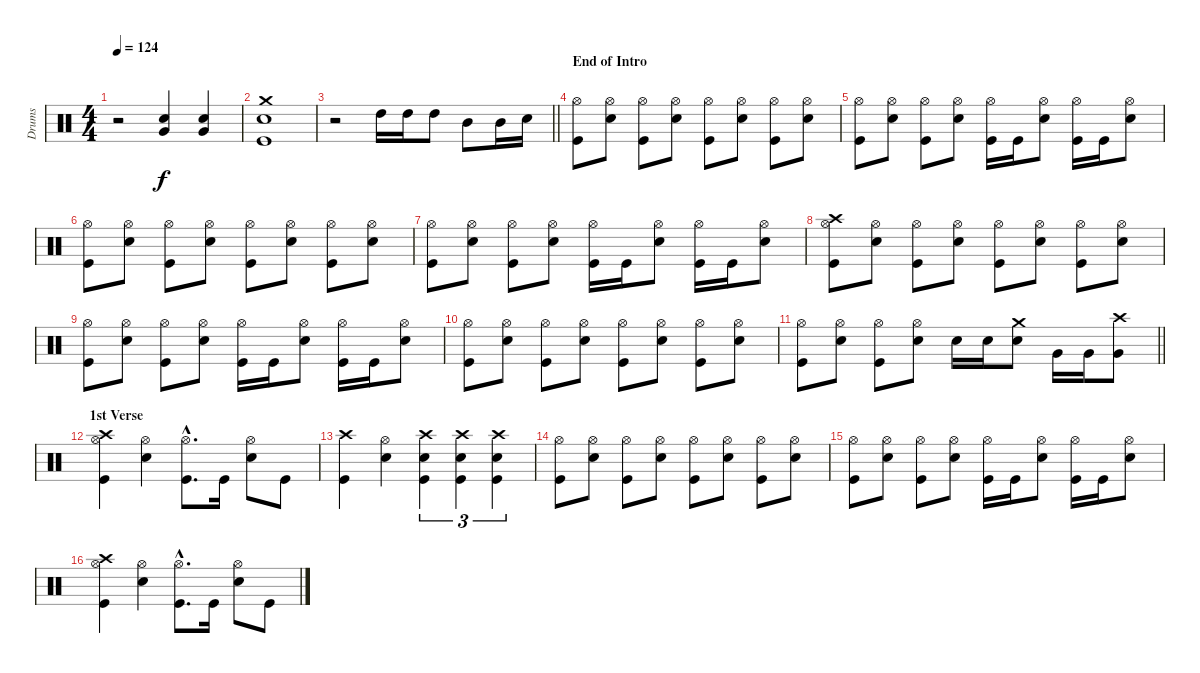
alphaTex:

\track ("Drums" "Drums") {instrument percussion}
\staff {score}
\articulation defaults
\ts (4 4)
\tempo 124
\clef neutral
\ks c
r.2{dy f} ("Very Low Tom (hit)" "Electric Snare (hit)").4 ("Very Low Tom (hit)" "Electric Snare (hit)").4 |
("Crash medium (hit)" "Electric Snare (hit)" "Kick (hit)").1 |
\barLineRight lightlight
r.2 "High Tom (hit)".16 "High Tom (hit)".16 "High Tom (hit)".8 "Mid Tom (hit)".8 "Mid Tom (hit)".16 "Electric Snare (hit)".16 |
\section ("" "End of Intro")
("Hi-Hat (open)" "Kick (hit)").8 ("Hi-Hat (open)" "Electric Snare (hit)").8 ("Hi-Hat (open)" "Kick (hit)").8 ("Hi-Hat (open)" "Electric Snare (hit)").8 ("Hi-Hat (open)" "Kick (hit)").8 ("Hi-Hat (open)" "Electric Snare (hit)").8 ("Hi-Hat (open)" "Kick (hit)").8 ("Hi-Hat (open)" "Electric Snare (hit)").8 |
("Hi-Hat (open)" "Kick (hit)").8 ("Hi-Hat (open)" "Electric Snare (hit)").8 ("Hi-Hat (open)" "Kick (hit)").8 ("Hi-Hat (open)" "Electric Snare (hit)").8 ("Hi-Hat (open)" "Kick (hit)").16 "Kick (hit)".16 ("Hi-Hat (open)" "Electric Snare (hit)").8 ("Hi-Hat (open)" "Kick (hit)").16 "Kick (hit)".16 ("Hi-Hat (open)" "Electric Snare (hit)").8 |
("Hi-Hat (open)" "Kick (hit)").8 ("Hi-Hat (open)" "Electric Snare (hit)").8 ("Hi-Hat (open)" "Kick (hit)").8 ("Hi-Hat (open)" "Electric Snare (hit)").8 ("Hi-Hat (open)" "Kick (hit)").8 ("Hi-Hat (open)" "Electric Snare (hit)").8 ("Hi-Hat (open)" "Kick (hit)").8 ("Hi-Hat (open)" "Electric Snare (hit)").8 |
("Hi-Hat (open)" "Kick (hit)").8 ("Hi-Hat (open)" "Electric Snare (hit)").8 ("Hi-Hat (open)" "Kick (hit)").8 ("Hi-Hat (open)" "Electric Snare (hit)").8 ("Hi-Hat (open)" "Kick (hit)").16 "Kick (hit)".16 ("Hi-Hat (open)" "Electric Snare (hit)").8 ("Hi-Hat (open)" "Kick (hit)").16 "Kick (hit)".16 ("Hi-Hat (open)" "Electric Snare (hit)").8 |
("Crash high (hit)" "Hi-Hat (open)" "Kick (hit)").8 ("Hi-Hat (open)" "Electric Snare (hit)").8 ("Hi-Hat (open)" "Kick (hit)").8 ("Hi-Hat (open)" "Electric Snare (hit)").8 ("Hi-Hat (open)" "Kick (hit)").8 ("Hi-Hat (open)" "Electric Snare (hit)").8 ("Hi-Hat (open)" "Kick (hit)").8 ("Hi-Hat (open)" "Electric Snare (hit)").8 |
("Hi-Hat (open)" "Kick (hit)").8 ("Hi-Hat (open)" "Electric Snare (hit)").8 ("Hi-Hat (open)" "Kick (hit)").8 ("Hi-Hat (open)" "Electric Snare (hit)").8 ("Hi-Hat (open)" "Kick (hit)").16 "Kick (hit)".16 ("Hi-Hat (open)" "Electric Snare (hit)").8 ("Hi-Hat (open)" "Kick (hit)").16 "Kick (hit)".16 ("Hi-Hat (open)" "Electric Snare (hit)").8 |
("Hi-Hat (open)" "Kick (hit)").8 ("Hi-Hat (open)" "Electric Snare (hit)").8 ("Hi-Hat (open)" "Kick (hit)").8 ("Hi-Hat (open)" "Electric Snare (hit)").8 ("Hi-Hat (open)" "Kick (hit)").8 ("Hi-Hat (open)" "Electric Snare (hit)").8 ("Hi-Hat (open)" "Kick (hit)").8 ("Hi-Hat (open)" "Electric Snare (hit)").8 |
\barLineRight lightlight
("Hi-Hat (open)" "Kick (hit)").8 ("Hi-Hat (open)" "Electric Snare (hit)").8 ("Hi-Hat (open)" "Kick (hit)").8 ("Hi-Hat (open)" "Electric Snare (hit)").8 "Electric Snare (hit)".16 "Electric Snare (hit)".16 ("Crash medium (hit)" "Electric Snare (hit)").8 "Very Low Tom (hit)".16 "Very Low Tom (hit)".16 ("Crash high (hit)" "Very Low Tom (hit)").8 |
\section ("" "1st Verse")
("Crash high (hit)" "Hi-Hat (open)" "Kick (hit)").4 ("Hi-Hat (open)" "Electric Snare (hit)").4 ("Hi-Hat (open)"{hac} "Kick (hit)"{hac}).8{d} "Kick (hit)".16 ("Hi-Hat (open)" "Electric Snare (hit)").8 "Kick (hit)".8 |
("Crash high (hit)" "Kick (hit)").4 ("Hi-Hat (open)" "Electric Snare (hit)").4 ("Crash high (hit)" "Electric Snare (hit)" "Kick (hit)").4{tu (3 2)} ("Crash high (hit)" "Electric Snare (hit)" "Kick (hit)").4{tu (3 2)} ("Crash high (hit)" "Electric Snare (hit)" "Kick (hit)").4{tu (3 2)} |
("Hi-Hat (open)" "Kick (hit)").8 ("Hi-Hat (open)" "Electric Snare (hit)").8 ("Hi-Hat (open)" "Kick (hit)").8 ("Hi-Hat (open)" "Electric Snare (hit)").8 ("Hi-Hat (open)" "Kick (hit)").8 ("Hi-Hat (open)" "Electric Snare (hit)").8 ("Hi-Hat (open)" "Kick (hit)").8 ("Hi-Hat (open)" "Electric Snare (hit)").8 |
("Hi-Hat (open)" "Kick (hit)").8 ("Hi-Hat (open)" "Electric Snare (hit)").8 ("Hi-Hat (open)" "Kick (hit)").8 ("Hi-Hat (open)" "Electric Snare (hit)").8 ("Hi-Hat (open)" "Kick (hit)").16 "Kick (hit)".16 ("Hi-Hat (open)" "Electric Snare (hit)").8 ("Hi-Hat (open)" "Kick (hit)").16 "Kick (hit)".16 ("Hi-Hat (open)" "Electric Snare (hit)").8 |
("Crash high (hit)" "Hi-Hat (open)" "Kick (hit)").4 ("Hi-Hat (open)" "Electric Snare (hit)").4 ("Hi-Hat (open)"{hac} "Kick (hit)"{hac}).8{d} "Kick (hit)".16 ("Hi-Hat (open)" "Electric Snare (hit)").8 "Kick (hit)".8
